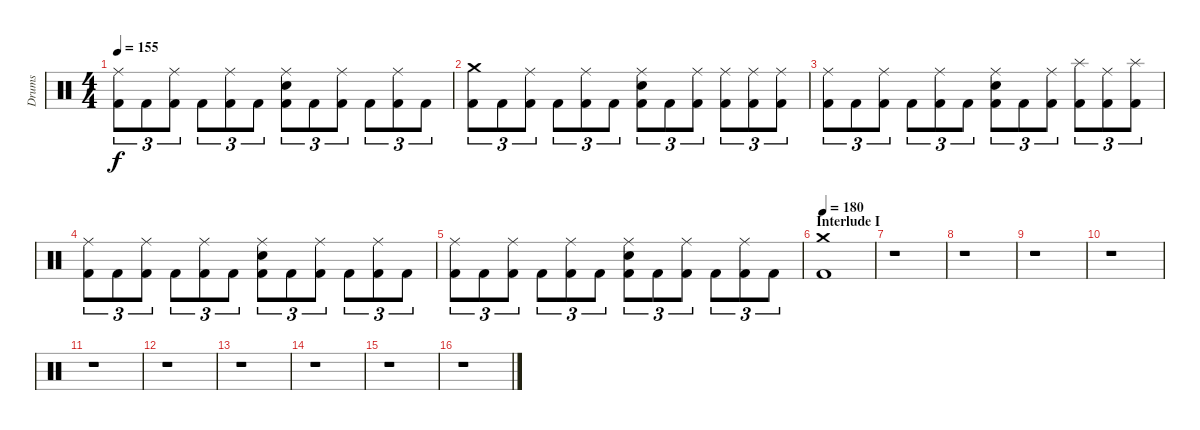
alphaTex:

\track ("Drums" "Drums") {instrument percussion}
\staff {score}
\articulation defaults
\ts (4 4)
\tempo 155
\clef neutral
\ks c
("Kick (hit) 2" "Ride (middle)").8{tu (3 2) dy f} "Kick (hit) 2".8{tu (3 2)} ("Kick (hit) 2" "Ride (middle)").8{tu (3 2)} "Kick (hit) 2".8{tu (3 2)} ("Kick (hit) 2" "Ride (middle)").8{tu (3 2)} "Kick (hit) 2".8{tu (3 2)} ("Kick (hit) 2" "Electric Snare (hit)" "Ride (middle)").8{tu (3 2)} "Kick (hit) 2".8{tu (3 2)} ("Kick (hit) 2" "Ride (middle)").8{tu (3 2)} "Kick (hit) 2".8{tu (3 2)} ("Kick (hit) 2" "Ride (middle)").8{tu (3 2)} "Kick (hit) 2".8{tu (3 2)} |
("Kick (hit) 2" "Crash medium (hit)").8{tu (3 2)} "Kick (hit) 2".8{tu (3 2)} ("Kick (hit) 2" "Ride (middle)").8{tu (3 2)} "Kick (hit) 2".8{tu (3 2)} ("Kick (hit) 2" "Ride (middle)").8{tu (3 2)} "Kick (hit) 2".8{tu (3 2)} ("Kick (hit) 2" "Electric Snare (hit)" "Ride (middle)").8{tu (3 2)} "Kick (hit) 2".8{tu (3 2)} ("Kick (hit) 2" "Ride (middle)").8{tu (3 2)} ("Kick (hit) 2" "Ride (middle)").8{tu (3 2)} ("Kick (hit) 2" "Ride (middle)").8{tu (3 2)} ("Kick (hit) 2" "Ride (middle)").8{tu (3 2)} |
("Kick (hit) 2" "Ride (middle)").8{tu (3 2)} "Kick (hit) 2".8{tu (3 2)} ("Kick (hit) 2" "Ride (middle)").8{tu (3 2)} "Kick (hit) 2".8{tu (3 2)} ("Kick (hit) 2" "Ride (middle)").8{tu (3 2)} "Kick (hit) 2".8{tu (3 2)} ("Kick (hit) 2" "Electric Snare (hit)" "Ride (middle)").8{tu (3 2)} "Kick (hit) 2".8{tu (3 2)} ("Kick (hit) 2" "Ride (middle)").8{tu (3 2)} ("Kick (hit) 2" "Splash (hit)").8{tu (3 2)} ("Kick (hit) 2" "Ride (middle)").8{tu (3 2)} ("Kick (hit) 2" "Splash (hit)").8{tu (3 2)} |
("Kick (hit) 2" "Ride (middle)").8{tu (3 2)} "Kick (hit) 2".8{tu (3 2)} ("Kick (hit) 2" "Ride (middle)").8{tu (3 2)} "Kick (hit) 2".8{tu (3 2)} ("Kick (hit) 2" "Ride (middle)").8{tu (3 2)} "Kick (hit) 2".8{tu (3 2)} ("Kick (hit) 2" "Electric Snare (hit)" "Ride (middle)").8{tu (3 2)} "Kick (hit) 2".8{tu (3 2)} ("Kick (hit) 2" "Ride (middle)").8{tu (3 2)} "Kick (hit) 2".8{tu (3 2)} ("Kick (hit) 2" "Ride (middle)").8{tu (3 2)} "Kick (hit) 2".8{tu (3 2)} |
("Kick (hit) 2" "Ride (middle)").8{tu (3 2)} "Kick (hit) 2".8{tu (3 2)} ("Kick (hit) 2" "Ride (middle)").8{tu (3 2)} "Kick (hit) 2".8{tu (3 2)} ("Kick (hit) 2" "Ride (middle)").8{tu (3 2)} "Kick (hit) 2".8{tu (3 2)} ("Kick (hit) 2" "Electric Snare (hit)" "Ride (middle)").8{tu (3 2)} "Kick (hit) 2".8{tu (3 2)} ("Kick (hit) 2" "Ride (middle)").8{tu (3 2)} "Kick (hit) 2".8{tu (3 2)} ("Kick (hit) 2" "Ride (middle)").8{tu (3 2)} "Kick (hit) 2".8{tu (3 2)} |
\section ("" "Interlude I")
\tempo 180
("Kick (hit) 2" "Crash medium (hit)").1 |
r.1 |
r.1 |
r.1 |
r.1 |
r.1 |
r.1 |
r.1 |
r.1 |
r.1 |
r.1
